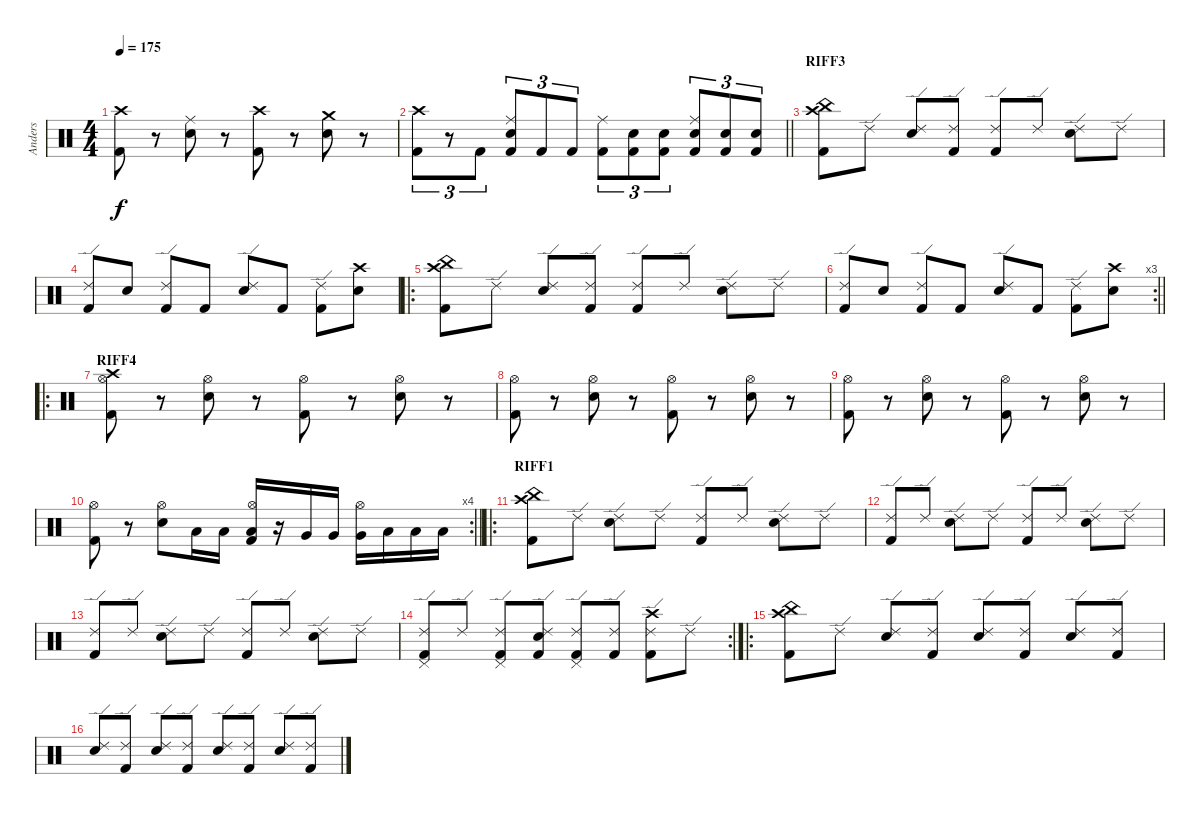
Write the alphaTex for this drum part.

\track ("Anders " "Anders ") {instrument percussion}
\staff {score}
\articulation defaults
\ts (4 4)
\tempo 175
\clef neutral
\ks c
("Crash high (hit)" "Kick (hit) 2").8{dy f} r.8 ("Ride (middle)" "Snare (hit) 2").8 r.8 ("Crash high (hit)" "Kick (hit) 2").8 r.8 ("Crash medium (hit)" "Snare (hit) 2").8 r.8 |
\barLineRight lightlight
("Crash high (hit)" "Kick (hit) 2").8{tu (3 2)} r.8{tu (3 2)} "Kick (hit) 2".8{tu (3 2)} ("Ride (middle)" "Snare (hit) 2" "Kick (hit) 2").8{tu (3 2)} "Kick (hit) 2".8{tu (3 2)} "Kick (hit) 2".8{tu (3 2)} ("Ride (middle)" "Kick (hit) 2").8{tu (3 2)} ("Snare (hit) 2" "Kick (hit) 2").8{tu (3 2)} ("Snare (hit) 2" "Kick (hit) 2").8{tu (3 2)} ("Ride (middle)" "Snare (hit) 2" "Kick (hit) 2").8{tu (3 2)} ("Snare (hit) 2" "Kick (hit) 2").8{tu (3 2)} ("Snare (hit) 2" "Kick (hit) 2").8{tu (3 2)} |
\section ("" "RIFF3")
("Crash high (hit)" "China (hit)" "Kick (hit) 2").8 "Ride (edge) 2".8 ("Ride (edge) 2" "Snare (hit) 2").8 ("Ride (edge) 2" "Kick (hit) 2").8 ("Ride (edge) 2" "Kick (hit) 2").8 "Ride (edge) 2".8 ("Ride (edge) 2" "Snare (hit) 2").8 "Ride (edge) 2".8 |
("Ride (edge) 2" "Kick (hit) 2").8 "Snare (hit) 2".8 ("Ride (edge) 2" "Kick (hit) 2").8 "Kick (hit) 2".8 ("Ride (edge) 2" "Snare (hit) 2").8 "Kick (hit) 2".8 ("Ride (edge) 2" "Kick (hit) 2").8 ("Crash high (hit)" "Snare (hit) 2").8 |
\ro
("Crash high (hit)" "China (hit)" "Kick (hit) 2").8 "Ride (edge) 2".8 ("Ride (edge) 2" "Snare (hit) 2").8 ("Ride (edge) 2" "Kick (hit) 2").8 ("Ride (edge) 2" "Kick (hit) 2").8 "Ride (edge) 2".8 ("Ride (edge) 2" "Snare (hit) 2").8 "Ride (edge) 2".8 |
\rc 3
\barLineRight lightlight
("Ride (edge) 2" "Kick (hit) 2").8 "Snare (hit) 2".8 ("Ride (edge) 2" "Kick (hit) 2").8 "Kick (hit) 2".8 ("Ride (edge) 2" "Snare (hit) 2").8 "Kick (hit) 2".8 ("Ride (edge) 2" "Kick (hit) 2").8 ("Crash high (hit)" "Snare (hit) 2").8 |
\ro
\section ("" "RIFF4")
("Crash high (hit)" "Hi-Hat (open)" "Kick (hit) 2").8 r.8 ("Hi-Hat (open)" "Snare (hit) 2").8 r.8 ("Hi-Hat (open)" "Kick (hit) 2").8 r.8 ("Hi-Hat (open)" "Snare (hit) 2").8 r.8 |
("Hi-Hat (open)" "Kick (hit) 2").8 r.8 ("Hi-Hat (open)" "Snare (hit) 2").8 r.8 ("Hi-Hat (open)" "Kick (hit) 2").8 r.8 ("Hi-Hat (open)" "Snare (hit) 2").8 r.8 |
("Hi-Hat (open)" "Kick (hit) 2").8 r.8 ("Hi-Hat (open)" "Snare (hit) 2").8 r.8 ("Hi-Hat (open)" "Kick (hit) 2").8 r.8 ("Hi-Hat (open)" "Snare (hit) 2").8 r.8 |
\rc 4
\barLineRight lightlight
("Hi-Hat (open)" "Kick (hit) 2").8 r.8 ("Hi-Hat (open)" "Snare (hit) 2").8 "Low Tom (hit)".16 "Low Tom (hit)".16 ("Hi-Hat (open)" "Low Tom (hit)" "Kick (hit) 2").16 r.16 "Very Low Tom (hit)".16 "Very Low Tom (hit)".16 ("Hi-Hat (open)" "Very Low Tom (hit)").16 "Low Floor Tom (hit)".16 "Low Floor Tom (hit)".16 "Low Floor Tom (hit)".16 |
\ro
\section ("" "RIFF1")
("Crash high (hit)" "China (hit)" "Kick (hit) 2").8 "Ride (edge) 2".8 ("Ride (edge) 2" "Snare (hit) 2").8 "Ride (edge) 2".8 ("Ride (edge) 2" "Kick (hit) 2").8 "Ride (edge) 2".8 ("Ride (edge) 2" "Snare (hit) 2").8 "Ride (edge) 2".8 |
("Ride (edge) 2" "Kick (hit) 2").8 "Ride (edge) 2".8 ("Ride (edge) 2" "Snare (hit) 2").8 "Ride (edge) 2".8 ("Ride (edge) 2" "Kick (hit) 2").8 "Ride (edge) 2".8 ("Ride (edge) 2" "Snare (hit) 2").8 "Ride (edge) 2".8 |
("Ride (edge) 2" "Kick (hit) 2").8 "Ride (edge) 2".8 ("Ride (edge) 2" "Snare (hit) 2").8 "Ride (edge) 2".8 ("Ride (edge) 2" "Kick (hit) 2").8 "Ride (edge) 2".8 ("Ride (edge) 2" "Snare (hit) 2").8 "Ride (edge) 2".8 |
\rc 2
("Ride (edge) 2" "Pedal Hi-Hat (hit)" "Kick (hit) 2").8 "Ride (edge) 2".8 ("Ride (edge) 2" "Pedal Hi-Hat (hit)" "Kick (hit) 2").8 ("Ride (edge) 2" "Snare (hit) 2" "Kick (hit) 2").8 ("Ride (edge) 2" "Pedal Hi-Hat (hit)" "Kick (hit) 2").8 ("Ride (edge) 2" "Kick (hit) 2").8 ("Ride (edge) 2" "Crash high (hit)" "Kick (hit) 2").8 "Ride (edge) 2".8 |
\ro
("Crash high (hit)" "China (hit)" "Kick (hit) 2").8 "Ride (edge) 2".8 ("Ride (edge) 2" "Snare (hit) 2").8 ("Ride (edge) 2" "Kick (hit) 2").8 ("Ride (edge) 2" "Snare (hit) 2").8 ("Ride (edge) 2" "Kick (hit) 2").8 ("Ride (edge) 2" "Snare (hit) 2").8 ("Ride (edge) 2" "Kick (hit) 2").8 |
("Ride (edge) 2" "Snare (hit) 2").8 ("Ride (edge) 2" "Kick (hit) 2").8 ("Ride (edge) 2" "Snare (hit) 2").8 ("Ride (edge) 2" "Kick (hit) 2").8 ("Ride (edge) 2" "Snare (hit) 2").8 ("Ride (edge) 2" "Kick (hit) 2").8 ("Ride (edge) 2" "Snare (hit) 2").8 ("Ride (edge) 2" "Kick (hit) 2").8
